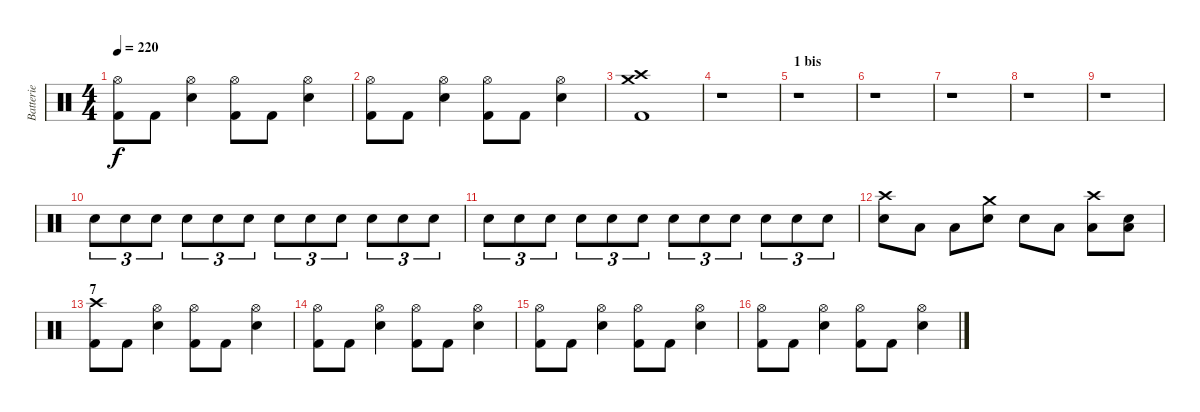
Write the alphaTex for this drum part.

\track ("Batterie" "Batterie") {instrument percussion}
\staff {score}
\articulation defaults
\ts (4 4)
\tempo 220
\clef neutral
\ks c
("Hi-Hat (open)" "Kick (hit) 2").8{dy f} "Kick (hit) 2".8 ("Hi-Hat (open)" "Electric Snare (hit)").4 ("Hi-Hat (open)" "Kick (hit) 2").8 "Kick (hit) 2".8 ("Hi-Hat (open)" "Electric Snare (hit)").4 |
("Hi-Hat (open)" "Kick (hit) 2").8 "Kick (hit) 2".8 ("Hi-Hat (open)" "Electric Snare (hit)").4 ("Hi-Hat (open)" "Kick (hit) 2").8 "Kick (hit) 2".8 ("Hi-Hat (open)" "Electric Snare (hit)").4 |
("Crash high (hit)" "Crash medium (hit)" "Kick (hit) 2").1 |
r.1 |
\section ("" "1 bis")
r.1 |
r.1 |
r.1 |
r.1 |
r.1 |
"Electric Snare (hit)".8{tu (3 2) volume 14} "Electric Snare (hit)".8{tu (3 2)} "Electric Snare (hit)".8{tu (3 2)} "Electric Snare (hit)".8{tu (3 2)} "Electric Snare (hit)".8{tu (3 2)} "Electric Snare (hit)".8{tu (3 2)} "Electric Snare (hit)".8{tu (3 2)} "Electric Snare (hit)".8{tu (3 2)} "Electric Snare (hit)".8{tu (3 2)} "Electric Snare (hit)".8{tu (3 2)} "Electric Snare (hit)".8{tu (3 2)} "Electric Snare (hit)".8{tu (3 2)} |
"Electric Snare (hit)".8{tu (3 2)} "Electric Snare (hit)".8{tu (3 2)} "Electric Snare (hit)".8{tu (3 2)} "Electric Snare (hit)".8{tu (3 2)} "Electric Snare (hit)".8{tu (3 2)} "Electric Snare (hit)".8{tu (3 2)} "Electric Snare (hit)".8{tu (3 2)} "Electric Snare (hit)".8{tu (3 2)} "Electric Snare (hit)".8{tu (3 2)} "Electric Snare (hit)".8{tu (3 2)} "Electric Snare (hit)".8{tu (3 2)} "Electric Snare (hit)".8{tu (3 2)} |
("Crash high (hit)" "Electric Snare (hit)").8 "Low Floor Tom (hit)".8 "Low Floor Tom (hit)".8 ("Crash medium (hit)" "Electric Snare (hit)").8 "Electric Snare (hit)".8 "Low Floor Tom (hit)".8 ("Crash high (hit)" "Low Floor Tom (hit)").8 ("Electric Snare (hit)" "Low Floor Tom (hit)").8 |
\section ("" "7")
("Crash high (hit)" "Kick (hit) 2").8 "Kick (hit) 2".8 ("Hi-Hat (open)" "Electric Snare (hit)").4 ("Hi-Hat (open)" "Kick (hit) 2").8 "Kick (hit) 2".8 ("Hi-Hat (open)" "Electric Snare (hit)").4 |
("Hi-Hat (open)" "Kick (hit) 2").8 "Kick (hit) 2".8 ("Hi-Hat (open)" "Electric Snare (hit)").4 ("Hi-Hat (open)" "Kick (hit) 2").8 "Kick (hit) 2".8 ("Hi-Hat (open)" "Electric Snare (hit)").4 |
("Hi-Hat (open)" "Kick (hit) 2").8 "Kick (hit) 2".8 ("Hi-Hat (open)" "Electric Snare (hit)").4 ("Hi-Hat (open)" "Kick (hit) 2").8 "Kick (hit) 2".8 ("Hi-Hat (open)" "Electric Snare (hit)").4 |
("Hi-Hat (open)" "Kick (hit) 2").8 "Kick (hit) 2".8 ("Hi-Hat (open)" "Electric Snare (hit)").4 ("Hi-Hat (open)" "Kick (hit) 2").8 "Kick (hit) 2".8 ("Hi-Hat (open)" "Electric Snare (hit)").4
